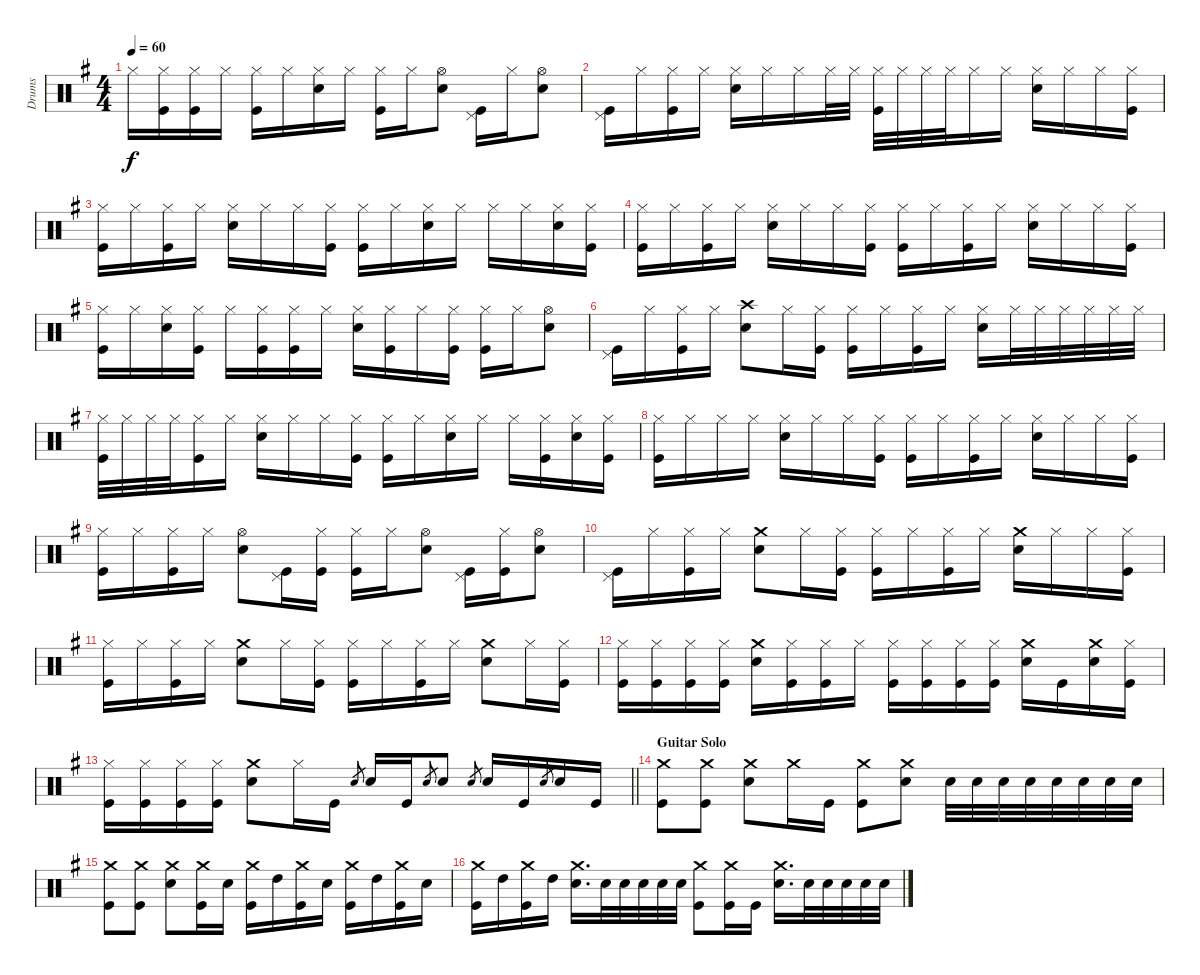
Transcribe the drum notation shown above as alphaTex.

\track ("Drums" "Drums") {instrument percussion}
\staff {score}
\articulation defaults
\ts (4 4)
\tempo 60
\clef neutral
\ks g "Hi-Hat (closed)".16{dy f}
("Kick (hit)" "Hi-Hat (closed)").16 ("Kick (hit)" "Hi-Hat (closed)").16 "Hi-Hat (closed)".16 ("Kick (hit)" "Hi-Hat (closed)").16 "Hi-Hat (closed)".16 ("Electric Snare (hit)" "Hi-Hat (closed)").16 "Hi-Hat (closed)".16 ("Kick (hit)" "Hi-Hat (closed)").16 "Hi-Hat (closed)".16 ("Electric Snare (hit)" "Hi-Hat (open)").8 ("Kick (hit)" "Pedal Hi-Hat (hit)").16 "Hi-Hat (closed)".16 ("Electric Snare (hit)" "Hi-Hat (open)").8 |
("Kick (hit)" "Pedal Hi-Hat (hit)").16 "Hi-Hat (closed)".16 ("Kick (hit)" "Hi-Hat (closed)").16 "Hi-Hat (closed)".16 ("Electric Snare (hit)" "Hi-Hat (closed)").16 "Hi-Hat (closed)".16 "Hi-Hat (closed)".16 "Hi-Hat (closed)".32 "Hi-Hat (closed)".32 ("Kick (hit)" "Hi-Hat (closed)").32 "Hi-Hat (closed)".32 "Hi-Hat (closed)".32 "Hi-Hat (closed)".32 "Hi-Hat (closed)".16 "Hi-Hat (closed)".16 ("Electric Snare (hit)" "Hi-Hat (closed)").16 "Hi-Hat (closed)".16 "Hi-Hat (closed)".16 ("Kick (hit)" "Hi-Hat (closed)").16 |
("Kick (hit)" "Hi-Hat (closed)").16 "Hi-Hat (closed)".16 ("Kick (hit)" "Hi-Hat (closed)").16 "Hi-Hat (closed)".16 ("Electric Snare (hit)" "Hi-Hat (closed)").16 "Hi-Hat (closed)".16 "Hi-Hat (closed)".16 ("Kick (hit)" "Hi-Hat (closed)").16 ("Kick (hit)" "Hi-Hat (closed)").16 "Hi-Hat (closed)".16 ("Electric Snare (hit)" "Hi-Hat (closed)").16 "Hi-Hat (closed)".16 "Hi-Hat (closed)".16 "Hi-Hat (closed)".16 ("Electric Snare (hit)" "Hi-Hat (closed)").16 ("Kick (hit)" "Hi-Hat (closed)").16 |
("Kick (hit)" "Hi-Hat (closed)").16 "Hi-Hat (closed)".16 ("Kick (hit)" "Hi-Hat (closed)").16 "Hi-Hat (closed)".16 ("Electric Snare (hit)" "Hi-Hat (closed)").16 "Hi-Hat (closed)".16 "Hi-Hat (closed)".16 ("Kick (hit)" "Hi-Hat (closed)").16 ("Kick (hit)" "Hi-Hat (closed)").16 "Hi-Hat (closed)".16 ("Kick (hit)" "Hi-Hat (closed)").16 "Hi-Hat (closed)".16 ("Electric Snare (hit)" "Hi-Hat (closed)").16 "Hi-Hat (closed)".16 "Hi-Hat (closed)".16 ("Kick (hit)" "Hi-Hat (closed)").16 |
("Kick (hit)" "Hi-Hat (closed)").16 "Hi-Hat (closed)".16 ("Electric Snare (hit)" "Hi-Hat (closed)").16 ("Kick (hit)" "Hi-Hat (closed)").16 "Hi-Hat (closed)".16 ("Kick (hit)" "Hi-Hat (closed)").16 ("Kick (hit)" "Hi-Hat (closed)").16 "Hi-Hat (closed)".16 ("Electric Snare (hit)" "Hi-Hat (closed)").16 ("Kick (hit)" "Hi-Hat (closed)").16 "Hi-Hat (closed)".16 ("Kick (hit)" "Hi-Hat (closed)").16 ("Kick (hit)" "Hi-Hat (closed)").16 "Hi-Hat (closed)".16 ("Electric Snare (hit)" "Hi-Hat (open)").8 |
("Kick (hit)" "Pedal Hi-Hat (hit)").16 "Hi-Hat (closed)".16 ("Kick (hit)" "Hi-Hat (closed)").16 "Hi-Hat (closed)".16 ("Electric Snare (hit)" "Crash high (hit)").8 "Hi-Hat (closed)".16 ("Kick (hit)" "Hi-Hat (closed)").16 ("Kick (hit)" "Hi-Hat (closed)").16 "Hi-Hat (closed)".16 ("Kick (hit)" "Hi-Hat (closed)").16 "Hi-Hat (closed)".16 ("Electric Snare (hit)" "Hi-Hat (closed)").16 "Hi-Hat (closed)".32 "Hi-Hat (closed)".32 "Hi-Hat (closed)".32 "Hi-Hat (closed)".32 "Hi-Hat (closed)".32 "Hi-Hat (closed)".32 |
("Kick (hit)" "Hi-Hat (closed)").32 "Hi-Hat (closed)".32 "Hi-Hat (closed)".32 "Hi-Hat (closed)".32 ("Kick (hit)" "Hi-Hat (closed)").16 "Hi-Hat (closed)".16 ("Electric Snare (hit)" "Hi-Hat (closed)").16 "Hi-Hat (closed)".16 "Hi-Hat (closed)".16 ("Kick (hit)" "Hi-Hat (closed)").16 ("Kick (hit)" "Hi-Hat (closed)").16 "Hi-Hat (closed)".16 ("Electric Snare (hit)" "Hi-Hat (closed)").16 "Hi-Hat (closed)".16 "Hi-Hat (closed)".16 ("Kick (hit)" "Hi-Hat (closed)").16 ("Electric Snare (hit)" "Hi-Hat (closed)").16 ("Kick (hit)" "Hi-Hat (closed)").16 |
("Kick (hit)" "Hi-Hat (closed)").16 "Hi-Hat (closed)".16 "Hi-Hat (closed)".16 "Hi-Hat (closed)".16 ("Electric Snare (hit)" "Hi-Hat (closed)").16 "Hi-Hat (closed)".16 "Hi-Hat (closed)".16 ("Kick (hit)" "Hi-Hat (closed)").16 ("Kick (hit)" "Hi-Hat (closed)").16 "Hi-Hat (closed)".16 ("Kick (hit)" "Hi-Hat (closed)").16 "Hi-Hat (closed)".16 ("Electric Snare (hit)" "Hi-Hat (closed)").16 "Hi-Hat (closed)".16 "Hi-Hat (closed)".16 ("Kick (hit)" "Hi-Hat (closed)").16 |
("Kick (hit)" "Hi-Hat (closed)").16 "Hi-Hat (closed)".16 ("Kick (hit)" "Hi-Hat (closed)").16 "Hi-Hat (closed)".16 ("Electric Snare (hit)" "Hi-Hat (open)").8 ("Kick (hit)" "Pedal Hi-Hat (hit)").16 ("Kick (hit)" "Hi-Hat (closed)").16 ("Kick (hit)" "Hi-Hat (closed)").16 "Hi-Hat (closed)".16 ("Electric Snare (hit)" "Hi-Hat (open)").8 ("Kick (hit)" "Pedal Hi-Hat (hit)").16 ("Kick (hit)" "Hi-Hat (closed)").16 ("Electric Snare (hit)" "Hi-Hat (open)").8 |
("Kick (hit)" "Pedal Hi-Hat (hit)").16 "Hi-Hat (closed)".16 ("Kick (hit)" "Hi-Hat (closed)").16 "Hi-Hat (closed)".16 ("Electric Snare (hit)" "Crash medium (hit)").8 "Hi-Hat (closed)".16 ("Kick (hit)" "Hi-Hat (closed)").16 ("Kick (hit)" "Hi-Hat (closed)").16 "Hi-Hat (closed)".16 ("Kick (hit)" "Hi-Hat (closed)").16 "Hi-Hat (closed)".16 ("Electric Snare (hit)" "Crash medium (hit)").16 "Hi-Hat (closed)".16 "Hi-Hat (closed)".16 ("Kick (hit)" "Hi-Hat (closed)").16 |
("Kick (hit)" "Hi-Hat (closed)").16 "Hi-Hat (closed)".16 ("Kick (hit)" "Hi-Hat (closed)").16 "Hi-Hat (closed)".16 ("Electric Snare (hit)" "Crash medium (hit)").8 "Hi-Hat (closed)".16 ("Kick (hit)" "Hi-Hat (closed)").16 ("Kick (hit)" "Hi-Hat (closed)").16 "Hi-Hat (closed)".16 ("Kick (hit)" "Hi-Hat (closed)").16 "Hi-Hat (closed)".16 ("Electric Snare (hit)" "Crash medium (hit)").8 "Hi-Hat (closed)".16 ("Kick (hit)" "Hi-Hat (closed)").16 |
("Kick (hit)" "Hi-Hat (closed)").16 ("Kick (hit)" "Hi-Hat (closed)").16 ("Kick (hit)" "Hi-Hat (closed)").16 ("Kick (hit)" "Hi-Hat (closed)").16 ("Electric Snare (hit)" "Crash medium (hit)").16 ("Kick (hit)" "Hi-Hat (closed)").16 ("Kick (hit)" "Hi-Hat (closed)").16 "Hi-Hat (closed)".16 ("Kick (hit)" "Hi-Hat (closed)").16 ("Kick (hit)" "Hi-Hat (closed)").16 ("Kick (hit)" "Hi-Hat (closed)").16 ("Kick (hit)" "Hi-Hat (closed)").16 ("Electric Snare (hit)" "Crash medium (hit)").16 "Kick (hit)".16 ("Electric Snare (hit)" "Crash medium (hit)").16 ("Kick (hit)" "Hi-Hat (closed)").16 |
\barLineRight lightlight
("Kick (hit)" "Hi-Hat (closed)").16 ("Kick (hit)" "Hi-Hat (closed)").16 ("Kick (hit)" "Hi-Hat (closed)").16 ("Kick (hit)" "Hi-Hat (closed)").16 ("Electric Snare (hit)" "Crash medium (hit)").8 "Hi-Hat (closed)".16 "Kick (hit)".16 "Electric Snare (hit)".8{gr} "Electric Snare (hit)".16 "Kick (hit)".16 "Electric Snare (hit)".8{gr} "Electric Snare (hit)".8 "Electric Snare (hit)".8{gr} "Electric Snare (hit)".16 "Kick (hit)".16 "Electric Snare (hit)".8{gr} "Electric Snare (hit)".16 "Kick (hit)".16 |
\section ("" "Guitar Solo")
("Kick (hit)" "Crash medium (hit)").8 ("Kick (hit)" "Crash medium (hit)").8 ("Electric Snare (hit)" "Crash medium (hit)").8 "Crash medium (hit)".16 "Kick (hit)".16 ("Kick (hit)" "Crash medium (hit)").8 ("Electric Snare (hit)" "Crash medium (hit)").8 "Electric Snare (hit)".32 "Electric Snare (hit)".32 "Electric Snare (hit)".32 "Electric Snare (hit)".32 "Electric Snare (hit)".32 "Electric Snare (hit)".32 "Electric Snare (hit)".32 "Electric Snare (hit)".32 |
("Kick (hit)" "Crash medium (hit)").8 ("Kick (hit)" "Crash medium (hit)").8 ("Electric Snare (hit)" "Crash medium (hit)").8 ("Kick (hit)" "Crash medium (hit)").16 "Electric Snare (hit)".16 ("Kick (hit)" "Crash medium (hit)").16 "High Tom (hit)".16 ("Kick (hit)" "Crash medium (hit)").16 "Electric Snare (hit)".16 ("Kick (hit)" "Crash medium (hit)").16 "High Tom (hit)".16 ("Kick (hit)" "Crash medium (hit)").16 "Electric Snare (hit)".16 |
("Kick (hit)" "Crash medium (hit)").16 "High Tom (hit)".16 ("Kick (hit)" "Crash medium (hit)").16 "High Tom (hit)".16 ("Electric Snare (hit)" "Crash medium (hit)").16{d} "Electric Snare (hit)".32 "Electric Snare (hit)".32 "Electric Snare (hit)".32 "Electric Snare (hit)".32 "Electric Snare (hit)".32 ("Kick (hit)" "Crash medium (hit)").8 ("Kick (hit)" "Crash medium (hit)").16 "Kick (hit)".16 ("Electric Snare (hit)" "Crash medium (hit)").16{d} "Electric Snare (hit)".32 "Electric Snare (hit)".32 "Electric Snare (hit)".32 "Electric Snare (hit)".32 "Electric Snare (hit)".32
